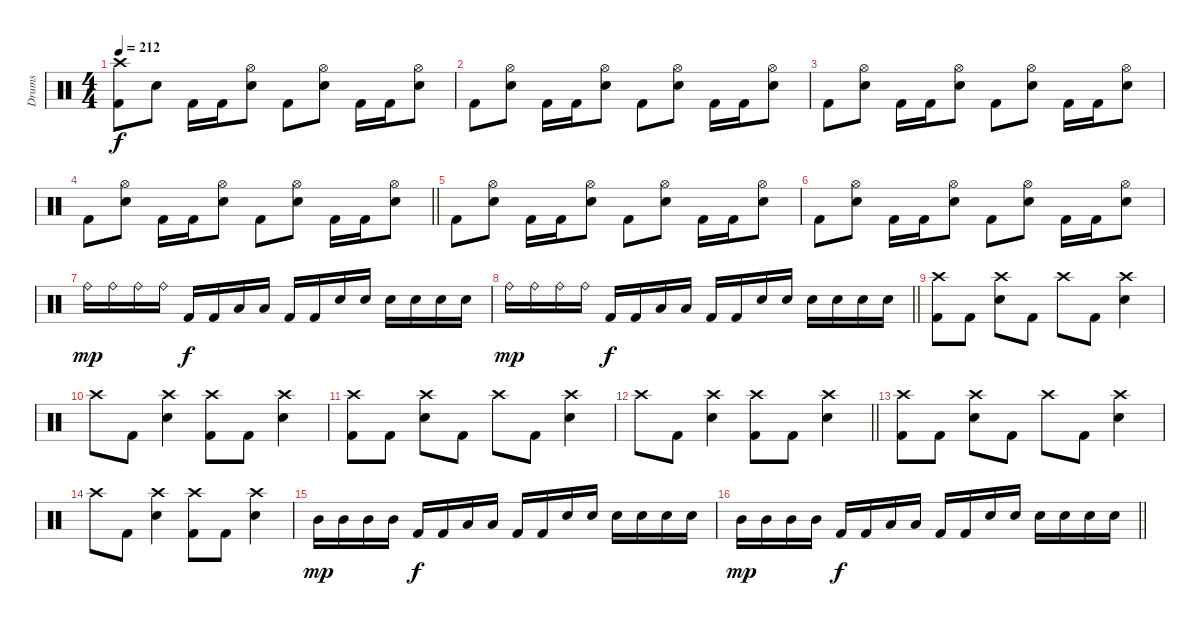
\track ("Drums" "Drums") {instrument percussion}
\staff {score}
\articulation defaults
\ts (4 4)
\tempo 212
\clef neutral
\ks c
("Crash high (hit)" "Kick (hit) 2").8{dy f} "Electric Snare (hit)".8 "Kick (hit) 2".16 "Kick (hit) 2".16 ("Hi-Hat (open)" "Electric Snare (hit)").8 "Kick (hit) 2".8 ("Hi-Hat (open)" "Electric Snare (hit)").8 "Kick (hit) 2".16 "Kick (hit) 2".16 ("Hi-Hat (open)" "Electric Snare (hit)").8 |
"Kick (hit) 2".8 ("Hi-Hat (open)" "Electric Snare (hit)").8 "Kick (hit) 2".16 "Kick (hit) 2".16 ("Hi-Hat (open)" "Electric Snare (hit)").8 "Kick (hit) 2".8 ("Hi-Hat (open)" "Electric Snare (hit)").8 "Kick (hit) 2".16 "Kick (hit) 2".16 ("Hi-Hat (open)" "Electric Snare (hit)").8 |
"Kick (hit) 2".8 ("Hi-Hat (open)" "Electric Snare (hit)").8 "Kick (hit) 2".16 "Kick (hit) 2".16 ("Hi-Hat (open)" "Electric Snare (hit)").8 "Kick (hit) 2".8 ("Hi-Hat (open)" "Electric Snare (hit)").8 "Kick (hit) 2".16 "Kick (hit) 2".16 ("Hi-Hat (open)" "Electric Snare (hit)").8 |
\barLineRight lightlight "Kick (hit) 2".8
("Hi-Hat (open)" "Electric Snare (hit)").8 "Kick (hit) 2".16 "Kick (hit) 2".16 ("Hi-Hat (open)" "Electric Snare (hit)").8 "Kick (hit) 2".8 ("Hi-Hat (open)" "Electric Snare (hit)").8 "Kick (hit) 2".16 "Kick (hit) 2".16 ("Hi-Hat (open)" "Electric Snare (hit)").8 |
"Kick (hit) 2".8 ("Hi-Hat (open)" "Electric Snare (hit)").8 "Kick (hit) 2".16 "Kick (hit) 2".16 ("Hi-Hat (open)" "Electric Snare (hit)").8 "Kick (hit) 2".8 ("Hi-Hat (open)" "Electric Snare (hit)").8 "Kick (hit) 2".16 "Kick (hit) 2".16 ("Hi-Hat (open)" "Electric Snare (hit)").8 |
"Kick (hit) 2".8 ("Hi-Hat (open)" "Electric Snare (hit)").8 "Kick (hit) 2".16 "Kick (hit) 2".16 ("Hi-Hat (open)" "Electric Snare (hit)").8 "Kick (hit) 2".8 ("Hi-Hat (open)" "Electric Snare (hit)").8 "Kick (hit) 2".16 "Kick (hit) 2".16 ("Hi-Hat (open)" "Electric Snare (hit)").8 |
"Ride (bell)".16{dy mp} "Ride (bell)".16 "Ride (bell)".16 "Ride (bell)".16 "Kick (hit) 2".16{dy f} "Kick (hit) 2".16 "Low Tom (hit)".16 "Low Tom (hit)".16 "Kick (hit) 2".16 "Kick (hit) 2".16 "Electric Snare (hit)".16 "Electric Snare (hit)".16 "Electric Snare (hit)".16 "Electric Snare (hit)".16 "Electric Snare (hit)".16 "Electric Snare (hit)".16 |
\barLineRight lightlight "Ride (bell)".16{dy mp} "Ride (bell)".16 "Ride (bell)".16 "Ride (bell)".16 "Kick (hit) 2".16{dy f} "Kick (hit) 2".16 "Low Tom (hit)".16 "Low Tom (hit)".16 "Kick (hit) 2".16 "Kick (hit) 2".16 "Electric Snare (hit)".16 "Electric Snare (hit)".16 "Electric Snare (hit)".16 "Electric Snare (hit)".16 "Electric Snare (hit)".16 "Electric Snare (hit)".16
|
("Crash high (hit)" "Kick (hit) 2").8 "Kick (hit) 2".8 ("Crash high (hit)" "Electric Snare (hit)").8 "Kick (hit) 2".8 "Crash high (hit)".8 "Kick (hit) 2".8 ("Crash high (hit)" "Electric Snare (hit)").4 |
"Crash high (hit)".8 "Kick (hit) 2".8 ("Crash high (hit)" "Electric Snare (hit)").4 ("Crash high (hit)" "Kick (hit) 2").8 "Kick (hit) 2".8 ("Crash high (hit)" "Electric Snare (hit)").4 |
("Crash high (hit)" "Kick (hit) 2").8 "Kick (hit) 2".8 ("Crash high (hit)" "Electric Snare (hit)").8 "Kick (hit) 2".8 "Crash high (hit)".8 "Kick (hit) 2".8 ("Crash high (hit)" "Electric Snare (hit)").4 |
\barLineRight lightlight "Crash high (hit)".8 "Kick (hit) 2".8
("Crash high (hit)" "Electric Snare (hit)").4 ("Crash high (hit)" "Kick (hit) 2").8 "Kick (hit) 2".8 ("Crash high (hit)" "Electric Snare (hit)").4 |
("Crash high (hit)" "Kick (hit) 2").8 "Kick (hit) 2".8 ("Crash high (hit)" "Electric Snare (hit)").8 "Kick (hit) 2".8 "Crash high (hit)".8 "Kick (hit) 2".8 ("Crash high (hit)" "Electric Snare (hit)").4 |
"Crash high (hit)".8 "Kick (hit) 2".8 ("Crash high (hit)" "Electric Snare (hit)").4 ("Crash high (hit)" "Kick (hit) 2").8 "Kick (hit) 2".8 ("Crash high (hit)" "Electric Snare (hit)").4 |
"Mid Tom (hit)".16{dy mp} "Mid Tom (hit)".16 "Mid Tom (hit)".16 "Mid Tom (hit)".16 "Kick (hit) 2".16{dy f} "Kick (hit) 2".16 "Low Tom (hit)".16 "Low Tom (hit)".16 "Kick (hit) 2".16 "Kick (hit) 2".16 "Electric Snare (hit)".16 "Electric Snare (hit)".16 "Electric Snare (hit)".16 "Electric Snare (hit)".16 "Electric Snare (hit)".16 "Electric Snare (hit)".16 |
\barLineRight lightlight "Mid Tom (hit)".16{dy mp} "Mid Tom (hit)".16 "Mid Tom (hit)".16 "Mid Tom (hit)".16 "Kick (hit) 2".16{dy f} "Kick (hit) 2".16 "Low Tom (hit)".16 "Low Tom (hit)".16 "Kick (hit) 2".16 "Kick (hit) 2".16 "Electric Snare (hit)".16 "Electric Snare (hit)".16 "Electric Snare (hit)".16 "Electric Snare (hit)".16 "Electric Snare (hit)".16 "Electric Snare (hit)".16
